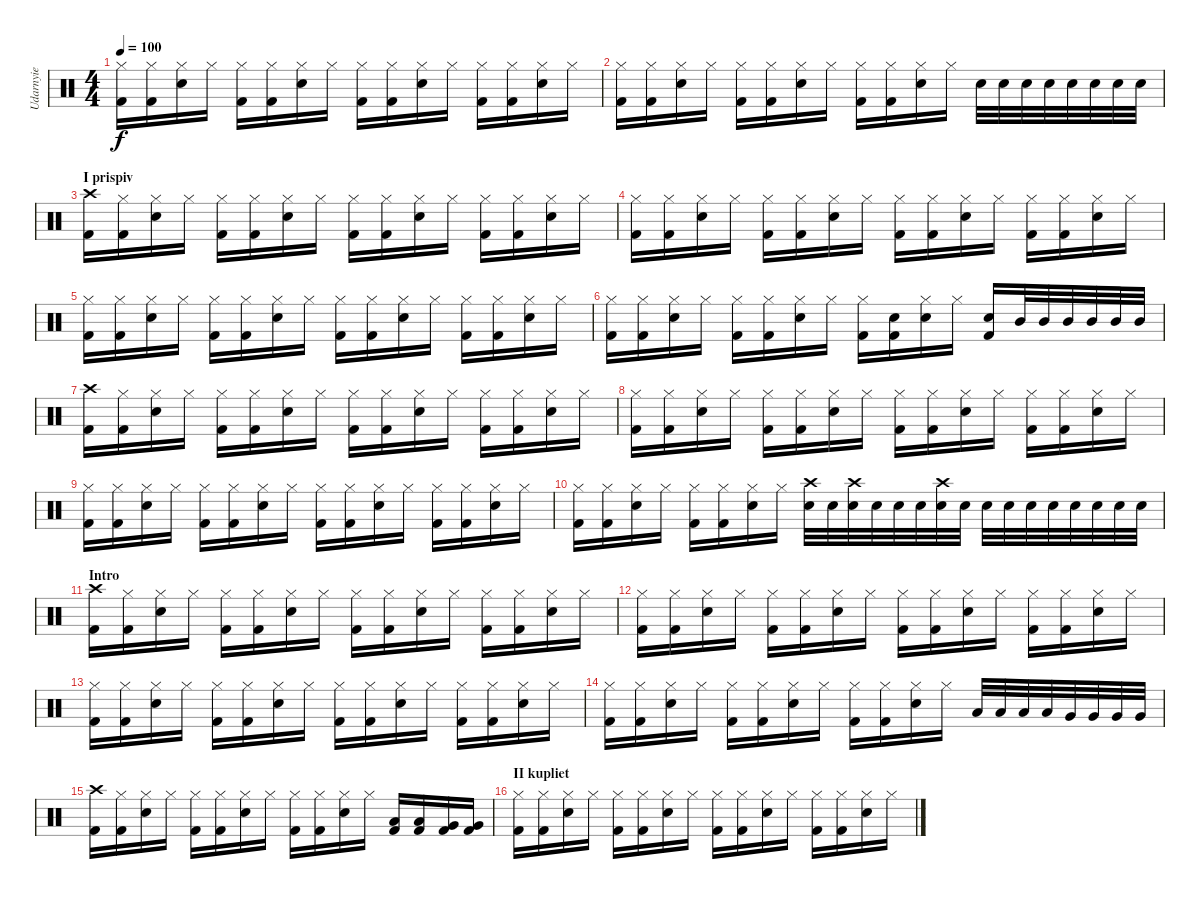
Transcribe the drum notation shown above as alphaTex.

\track ("Udarnyie" "Udarnyie") {instrument percussion}
\staff {score}
\articulation defaults
\ts (4 4)
\tempo 100
\clef neutral
\ks c
("Hi-Hat (closed)" "Kick (hit) 2").16{dy f} ("Hi-Hat (closed)" "Kick (hit) 2").16 ("Hi-Hat (closed)" "Snare (hit) 2").16 "Hi-Hat (closed)".16 ("Hi-Hat (closed)" "Kick (hit) 2").16 ("Hi-Hat (closed)" "Kick (hit) 2").16 ("Hi-Hat (closed)" "Snare (hit) 2").16 "Hi-Hat (closed)".16 ("Hi-Hat (closed)" "Kick (hit) 2").16 ("Hi-Hat (closed)" "Kick (hit) 2").16 ("Hi-Hat (closed)" "Snare (hit) 2").16 "Hi-Hat (closed)".16 ("Hi-Hat (closed)" "Kick (hit) 2").16 ("Hi-Hat (closed)" "Kick (hit) 2").16 ("Hi-Hat (closed)" "Snare (hit) 2").16 "Hi-Hat (closed)".16 |
("Hi-Hat (closed)" "Kick (hit) 2").16 ("Hi-Hat (closed)" "Kick (hit) 2").16 ("Hi-Hat (closed)" "Snare (hit) 2").16 "Hi-Hat (closed)".16 ("Hi-Hat (closed)" "Kick (hit) 2").16 ("Hi-Hat (closed)" "Kick (hit) 2").16 ("Hi-Hat (closed)" "Snare (hit) 2").16 "Hi-Hat (closed)".16 ("Hi-Hat (closed)" "Kick (hit) 2").16 ("Hi-Hat (closed)" "Kick (hit) 2").16 ("Hi-Hat (closed)" "Snare (hit) 2").16 "Hi-Hat (closed)".16 "Snare (hit) 2".32 "Snare (hit) 2".32 "Snare (hit) 2".32 "Snare (hit) 2".32 "Electric Snare (hit)".32 "Electric Snare (hit)".32 "Electric Snare (hit)".32 "Electric Snare (hit)".32 |
\section ("" "I prispiv")
("Crash high (hit)" "Kick (hit) 2").16 ("Hi-Hat (closed)" "Kick (hit) 2").16 ("Hi-Hat (closed)" "Snare (hit) 2").16 "Hi-Hat (closed)".16 ("Hi-Hat (closed)" "Kick (hit) 2").16 ("Hi-Hat (closed)" "Kick (hit) 2").16 ("Hi-Hat (closed)" "Snare (hit) 2").16 "Hi-Hat (closed)".16 ("Hi-Hat (closed)" "Kick (hit) 2").16 ("Hi-Hat (closed)" "Kick (hit) 2").16 ("Hi-Hat (closed)" "Snare (hit) 2").16 "Hi-Hat (closed)".16 ("Hi-Hat (closed)" "Kick (hit) 2").16 ("Hi-Hat (closed)" "Kick (hit) 2").16 ("Hi-Hat (closed)" "Snare (hit) 2").16 "Hi-Hat (closed)".16 |
("Hi-Hat (closed)" "Kick (hit) 2").16 ("Hi-Hat (closed)" "Kick (hit) 2").16 ("Hi-Hat (closed)" "Snare (hit) 2").16 "Hi-Hat (closed)".16 ("Hi-Hat (closed)" "Kick (hit) 2").16 ("Hi-Hat (closed)" "Kick (hit) 2").16 ("Hi-Hat (closed)" "Snare (hit) 2").16 "Hi-Hat (closed)".16 ("Hi-Hat (closed)" "Kick (hit) 2").16 ("Hi-Hat (closed)" "Kick (hit) 2").16 ("Hi-Hat (closed)" "Snare (hit) 2").16 "Hi-Hat (closed)".16 ("Hi-Hat (closed)" "Kick (hit) 2").16 ("Hi-Hat (closed)" "Kick (hit) 2").16 ("Hi-Hat (closed)" "Snare (hit) 2").16 "Hi-Hat (closed)".16 |
("Hi-Hat (closed)" "Kick (hit) 2").16 ("Hi-Hat (closed)" "Kick (hit) 2").16 ("Hi-Hat (closed)" "Snare (hit) 2").16 "Hi-Hat (closed)".16 ("Hi-Hat (closed)" "Kick (hit) 2").16 ("Hi-Hat (closed)" "Kick (hit) 2").16 ("Hi-Hat (closed)" "Snare (hit) 2").16 "Hi-Hat (closed)".16 ("Hi-Hat (closed)" "Kick (hit) 2").16 ("Hi-Hat (closed)" "Kick (hit) 2").16 ("Hi-Hat (closed)" "Snare (hit) 2").16 "Hi-Hat (closed)".16 ("Hi-Hat (closed)" "Kick (hit) 2").16 ("Hi-Hat (closed)" "Kick (hit) 2").16 ("Hi-Hat (closed)" "Snare (hit) 2").16 "Hi-Hat (closed)".16 |
("Hi-Hat (closed)" "Kick (hit) 2").16 ("Hi-Hat (closed)" "Kick (hit) 2").16 ("Hi-Hat (closed)" "Snare (hit) 2").16 "Hi-Hat (closed)".16 ("Hi-Hat (closed)" "Kick (hit) 2").16 ("Hi-Hat (closed)" "Kick (hit) 2").16 ("Hi-Hat (closed)" "Snare (hit) 2").16 "Hi-Hat (closed)".16 ("Hi-Hat (closed)" "Kick (hit) 2").16 ("Snare (hit) 2" "Kick (hit) 2").16 ("Hi-Hat (closed)" "Snare (hit) 2").16 "Hi-Hat (closed)".16 ("Electric Snare (hit)" "Kick (hit) 2").16 "Mid Tom (hit)".32 "Mid Tom (hit)".32 "Mid Tom (hit)".32 "Mid Tom (hit)".32 "Mid Tom (hit)".32 "Mid Tom (hit)".32 |
("Crash high (hit)" "Kick (hit) 2").16 ("Hi-Hat (closed)" "Kick (hit) 2").16 ("Hi-Hat (closed)" "Snare (hit) 2").16 "Hi-Hat (closed)".16 ("Hi-Hat (closed)" "Kick (hit) 2").16 ("Hi-Hat (closed)" "Kick (hit) 2").16 ("Hi-Hat (closed)" "Snare (hit) 2").16 "Hi-Hat (closed)".16 ("Hi-Hat (closed)" "Kick (hit) 2").16 ("Hi-Hat (closed)" "Kick (hit) 2").16 ("Hi-Hat (closed)" "Snare (hit) 2").16 "Hi-Hat (closed)".16 ("Hi-Hat (closed)" "Kick (hit) 2").16 ("Hi-Hat (closed)" "Kick (hit) 2").16 ("Hi-Hat (closed)" "Snare (hit) 2").16 "Hi-Hat (closed)".16 |
("Hi-Hat (closed)" "Kick (hit) 2").16 ("Hi-Hat (closed)" "Kick (hit) 2").16 ("Hi-Hat (closed)" "Snare (hit) 2").16 "Hi-Hat (closed)".16 ("Hi-Hat (closed)" "Kick (hit) 2").16 ("Hi-Hat (closed)" "Kick (hit) 2").16 ("Hi-Hat (closed)" "Snare (hit) 2").16 "Hi-Hat (closed)".16 ("Hi-Hat (closed)" "Kick (hit) 2").16 ("Hi-Hat (closed)" "Kick (hit) 2").16 ("Hi-Hat (closed)" "Snare (hit) 2").16 "Hi-Hat (closed)".16 ("Hi-Hat (closed)" "Kick (hit) 2").16 ("Hi-Hat (closed)" "Kick (hit) 2").16 ("Hi-Hat (closed)" "Snare (hit) 2").16 "Hi-Hat (closed)".16 |
("Hi-Hat (closed)" "Kick (hit) 2").16 ("Hi-Hat (closed)" "Kick (hit) 2").16 ("Hi-Hat (closed)" "Snare (hit) 2").16 "Hi-Hat (closed)".16 ("Hi-Hat (closed)" "Kick (hit) 2").16 ("Hi-Hat (closed)" "Kick (hit) 2").16 ("Hi-Hat (closed)" "Snare (hit) 2").16 "Hi-Hat (closed)".16 ("Hi-Hat (closed)" "Kick (hit) 2").16 ("Hi-Hat (closed)" "Kick (hit) 2").16 ("Hi-Hat (closed)" "Snare (hit) 2").16 "Hi-Hat (closed)".16 ("Hi-Hat (closed)" "Kick (hit) 2").16 ("Hi-Hat (closed)" "Kick (hit) 2").16 ("Hi-Hat (closed)" "Snare (hit) 2").16 "Hi-Hat (closed)".16 |
("Hi-Hat (closed)" "Kick (hit) 2").16 ("Hi-Hat (closed)" "Kick (hit) 2").16 ("Hi-Hat (closed)" "Snare (hit) 2").16 "Hi-Hat (closed)".16 ("Hi-Hat (closed)" "Kick (hit) 2").16 ("Hi-Hat (closed)" "Kick (hit) 2").16 ("Hi-Hat (closed)" "Snare (hit) 2").16 "Hi-Hat (closed)".16 ("Snare (hit) 2" "Crash high (hit)").32 "Snare (hit) 2".32 ("Snare (hit) 2" "Crash high (hit)").32 "Snare (hit) 2".32 "Snare (hit) 2".32 "Snare (hit) 2".32 ("Snare (hit) 2" "Crash high (hit)").32 "Snare (hit) 2".32 "Electric Snare (hit)".32 "Electric Snare (hit)".32 "Electric Snare (hit)".32 "Electric Snare (hit)".32 "Electric Snare (hit)".32 "Electric Snare (hit)".32 "Electric Snare (hit)".32 "Electric Snare (hit)".32 |
\section ("" "Intro")
("Crash high (hit)" "Kick (hit) 2").16 ("Hi-Hat (closed)" "Kick (hit) 2").16 ("Hi-Hat (closed)" "Snare (hit) 2").16 "Hi-Hat (closed)".16 ("Hi-Hat (closed)" "Kick (hit) 2").16 ("Hi-Hat (closed)" "Kick (hit) 2").16 ("Hi-Hat (closed)" "Snare (hit) 2").16 "Hi-Hat (closed)".16 ("Hi-Hat (closed)" "Kick (hit) 2").16 ("Hi-Hat (closed)" "Kick (hit) 2").16 ("Hi-Hat (closed)" "Snare (hit) 2").16 "Hi-Hat (closed)".16 ("Hi-Hat (closed)" "Kick (hit) 2").16 ("Hi-Hat (closed)" "Kick (hit) 2").16 ("Hi-Hat (closed)" "Snare (hit) 2").16 "Hi-Hat (closed)".16 |
("Hi-Hat (closed)" "Kick (hit) 2").16 ("Hi-Hat (closed)" "Kick (hit) 2").16 ("Hi-Hat (closed)" "Snare (hit) 2").16 "Hi-Hat (closed)".16 ("Hi-Hat (closed)" "Kick (hit) 2").16 ("Hi-Hat (closed)" "Kick (hit) 2").16 ("Hi-Hat (closed)" "Snare (hit) 2").16 "Hi-Hat (closed)".16 ("Hi-Hat (closed)" "Kick (hit) 2").16 ("Hi-Hat (closed)" "Kick (hit) 2").16 ("Hi-Hat (closed)" "Snare (hit) 2").16 "Hi-Hat (closed)".16 ("Hi-Hat (closed)" "Kick (hit) 2").16 ("Hi-Hat (closed)" "Kick (hit) 2").16 ("Hi-Hat (closed)" "Snare (hit) 2").16 "Hi-Hat (closed)".16 |
("Hi-Hat (closed)" "Kick (hit) 2").16 ("Hi-Hat (closed)" "Kick (hit) 2").16 ("Hi-Hat (closed)" "Snare (hit) 2").16 "Hi-Hat (closed)".16 ("Hi-Hat (closed)" "Kick (hit) 2").16 ("Hi-Hat (closed)" "Kick (hit) 2").16 ("Hi-Hat (closed)" "Snare (hit) 2").16 "Hi-Hat (closed)".16 ("Hi-Hat (closed)" "Kick (hit) 2").16 ("Hi-Hat (closed)" "Kick (hit) 2").16 ("Hi-Hat (closed)" "Snare (hit) 2").16 "Hi-Hat (closed)".16 ("Hi-Hat (closed)" "Kick (hit) 2").16 ("Hi-Hat (closed)" "Kick (hit) 2").16 ("Hi-Hat (closed)" "Snare (hit) 2").16 "Hi-Hat (closed)".16 |
("Hi-Hat (closed)" "Kick (hit) 2").16 ("Hi-Hat (closed)" "Kick (hit) 2").16 ("Hi-Hat (closed)" "Snare (hit) 2").16 "Hi-Hat (closed)".16 ("Hi-Hat (closed)" "Kick (hit) 2").16 ("Hi-Hat (closed)" "Kick (hit) 2").16 ("Hi-Hat (closed)" "Snare (hit) 2").16 "Hi-Hat (closed)".16 ("Hi-Hat (closed)" "Kick (hit) 2").16 ("Hi-Hat (closed)" "Kick (hit) 2").16 ("Hi-Hat (closed)" "Snare (hit) 2").16 "Hi-Hat (closed)".16 "Low Tom (hit)".32 "Low Tom (hit)".32 "Low Tom (hit)".32 "Low Tom (hit)".32 "Very Low Tom (hit)".32 "Very Low Tom (hit)".32 "Very Low Tom (hit)".32 "Very Low Tom (hit)".32 |
("Crash high (hit)" "Kick (hit) 2").16 ("Hi-Hat (closed)" "Kick (hit) 2").16 ("Hi-Hat (closed)" "Snare (hit) 2").16 "Hi-Hat (closed)".16 ("Hi-Hat (closed)" "Kick (hit) 2").16 ("Hi-Hat (closed)" "Kick (hit) 2").16 ("Hi-Hat (closed)" "Snare (hit) 2").16 "Hi-Hat (closed)".16 ("Hi-Hat (closed)" "Kick (hit) 2").16 ("Hi-Hat (closed)" "Kick (hit) 2").16 ("Hi-Hat (closed)" "Snare (hit) 2").16 "Hi-Hat (closed)".16 ("Kick (hit) 2" "Low Tom (hit)").16 ("Kick (hit) 2" "Low Tom (hit)").16 ("Kick (hit) 2" "Very Low Tom (hit)").16 ("Kick (hit) 2" "Very Low Tom (hit)").16 |
\section ("" "II kupliet")
("Hi-Hat (closed)" "Kick (hit) 2").16 ("Hi-Hat (closed)" "Kick (hit) 2").16 ("Hi-Hat (closed)" "Snare (hit) 2").16 "Hi-Hat (closed)".16 ("Hi-Hat (closed)" "Kick (hit) 2").16 ("Hi-Hat (closed)" "Kick (hit) 2").16 ("Hi-Hat (closed)" "Snare (hit) 2").16 "Hi-Hat (closed)".16 ("Hi-Hat (closed)" "Kick (hit) 2").16 ("Hi-Hat (closed)" "Kick (hit) 2").16 ("Hi-Hat (closed)" "Snare (hit) 2").16 "Hi-Hat (closed)".16 ("Hi-Hat (closed)" "Kick (hit) 2").16 ("Hi-Hat (closed)" "Kick (hit) 2").16 ("Hi-Hat (closed)" "Snare (hit) 2").16 "Hi-Hat (closed)".16
